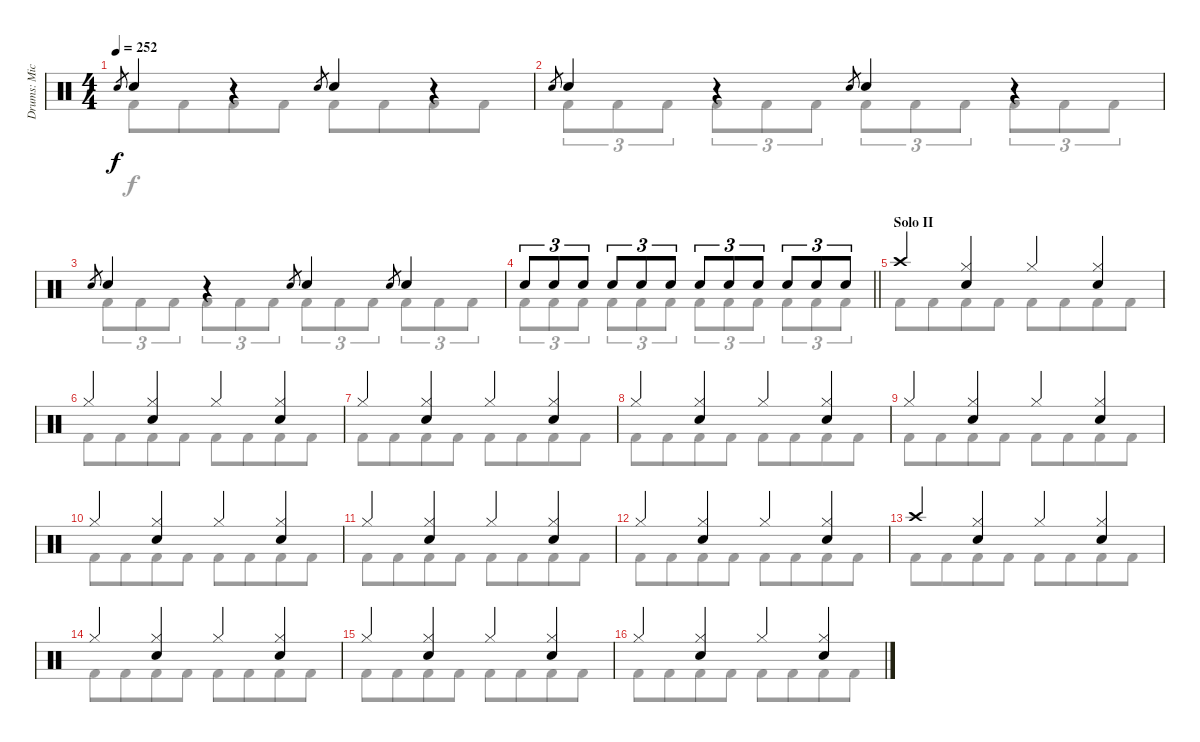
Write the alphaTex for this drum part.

\track ("Drums: Mick" "Drums: Mic") {instrument percussion}
\staff {score}
\articulation defaults
\voice
\ts (4 4)
\tempo 252
\clef neutral
\ks c "Electric Snare (hit)".8{gr dy f} "Snare (hit) 2".4
r.4 "Electric Snare (hit)".8{gr} "Snare (hit) 2".4 r.4 |
"Electric Snare (hit)".8{gr} "Snare (hit) 2".4 r.4 "Electric Snare (hit)".8{gr} "Snare (hit) 2".4 r.4 |
"Electric Snare (hit)".8{gr} "Snare (hit) 2".4 r.4 "Electric Snare (hit)".8{gr} "Snare (hit) 2".4 "Electric Snare (hit)".8{gr} "Snare (hit) 2".4 |
\barLineRight lightlight "Snare (hit) 2".8{tu (3 2)} "Snare (hit) 2".8{tu (3 2)} "Snare (hit) 2".8{tu (3 2)} "Snare (hit) 2".8{tu (3 2)} "Snare (hit) 2".8{tu (3 2)} "Snare (hit) 2".8{tu (3 2)} "Snare (hit) 2".8{tu (3 2)} "Snare (hit) 2".8{tu (3 2)} "Snare (hit) 2".8{tu (3 2)} "Snare (hit) 2".8{tu (3 2)} "Snare (hit) 2".8{tu (3 2)} "Snare (hit) 2".8{tu (3 2)}
|
\section ("" "Solo II")
"Crash high (hit)".4 ("Hi-Hat (closed)" "Snare (hit) 2").4 "Hi-Hat (closed)".4 ("Hi-Hat (closed)" "Snare (hit) 2").4 |
"Hi-Hat (closed)".4 ("Hi-Hat (closed)" "Snare (hit) 2").4 "Hi-Hat (closed)".4 ("Hi-Hat (closed)" "Snare (hit) 2").4 |
"Hi-Hat (closed)".4 ("Hi-Hat (closed)" "Snare (hit) 2").4 "Hi-Hat (closed)".4 ("Hi-Hat (closed)" "Snare (hit) 2").4 |
"Hi-Hat (closed)".4 ("Hi-Hat (closed)" "Snare (hit) 2").4 "Hi-Hat (closed)".4 ("Hi-Hat (closed)" "Snare (hit) 2").4 |
"Hi-Hat (closed)".4 ("Hi-Hat (closed)" "Snare (hit) 2").4 "Hi-Hat (closed)".4 ("Hi-Hat (closed)" "Snare (hit) 2").4 |
"Hi-Hat (closed)".4 ("Hi-Hat (closed)" "Snare (hit) 2").4 "Hi-Hat (closed)".4 ("Hi-Hat (closed)" "Snare (hit) 2").4 |
"Hi-Hat (closed)".4 ("Hi-Hat (closed)" "Snare (hit) 2").4 "Hi-Hat (closed)".4 ("Hi-Hat (closed)" "Snare (hit) 2").4 |
"Hi-Hat (closed)".4 ("Hi-Hat (closed)" "Snare (hit) 2").4 "Hi-Hat (closed)".4 ("Hi-Hat (closed)" "Snare (hit) 2").4 |
"Crash high (hit)".4 ("Hi-Hat (closed)" "Snare (hit) 2").4 "Hi-Hat (closed)".4 ("Hi-Hat (closed)" "Snare (hit) 2").4 |
"Hi-Hat (closed)".4 ("Hi-Hat (closed)" "Snare (hit) 2").4 "Hi-Hat (closed)".4 ("Hi-Hat (closed)" "Snare (hit) 2").4 |
"Hi-Hat (closed)".4 ("Hi-Hat (closed)" "Snare (hit) 2").4 "Hi-Hat (closed)".4 ("Hi-Hat (closed)" "Snare (hit) 2").4 |
"Hi-Hat (closed)".4 ("Hi-Hat (closed)" "Snare (hit) 2").4 "Hi-Hat (closed)".4 ("Hi-Hat (closed)" "Snare (hit) 2").4
\voice
\clef neutral
\ottava regular
\simile none
\ks c "Kick (hit) 2".8{dy f} "Kick (hit) 2".8{beam merge} "Kick (hit) 2".8 "Kick (hit) 2".8 "Kick (hit) 2".8 "Kick (hit) 2".8{beam merge} "Kick (hit) 2".8 "Kick (hit) 2".8
|
"Kick (hit) 2".8{tu (3 2)} "Kick (hit) 2".8{tu (3 2)} "Kick (hit) 2".8{tu (3 2)} "Kick (hit) 2".8{tu (3 2)} "Kick (hit) 2".8{tu (3 2)} "Kick (hit) 2".8{tu (3 2)} "Kick (hit) 2".8{tu (3 2)} "Kick (hit) 2".8{tu (3 2)} "Kick (hit) 2".8{tu (3 2)} "Kick (hit) 2".8{tu (3 2)} "Kick (hit) 2".8{tu (3 2)} "Kick (hit) 2".8{tu (3 2)} |
"Kick (hit) 2".8{tu (3 2)} "Kick (hit) 2".8{tu (3 2)} "Kick (hit) 2".8{tu (3 2)} "Kick (hit) 2".8{tu (3 2)} "Kick (hit) 2".8{tu (3 2)} "Kick (hit) 2".8{tu (3 2)} "Kick (hit) 2".8{tu (3 2)} "Kick (hit) 2".8{tu (3 2)} "Kick (hit) 2".8{tu (3 2)} "Kick (hit) 2".8{tu (3 2)} "Kick (hit) 2".8{tu (3 2)} "Kick (hit) 2".8{tu (3 2)} |
\barLineRight lightlight "Kick (hit) 2".8{tu (3 2)} "Kick (hit) 2".8{tu (3 2)} "Kick (hit) 2".8{tu (3 2)} "Kick (hit) 2".8{tu (3 2)} "Kick (hit) 2".8{tu (3 2)} "Kick (hit) 2".8{tu (3 2)} "Kick (hit) 2".8{tu (3 2)} "Kick (hit) 2".8{tu (3 2)} "Kick (hit) 2".8{tu (3 2)} "Kick (hit) 2".8{tu (3 2)} "Kick (hit) 2".8{tu (3 2)} "Kick (hit) 2".8{tu (3 2)}
|
"Kick (hit) 2".8 "Kick (hit) 2".8{beam merge} "Kick (hit) 2".8 "Kick (hit) 2".8 "Kick (hit) 2".8 "Kick (hit) 2".8{beam merge} "Kick (hit) 2".8 "Kick (hit) 2".8 |
"Kick (hit) 2".8 "Kick (hit) 2".8{beam merge} "Kick (hit) 2".8 "Kick (hit) 2".8 "Kick (hit) 2".8 "Kick (hit) 2".8{beam merge} "Kick (hit) 2".8 "Kick (hit) 2".8 |
"Kick (hit) 2".8 "Kick (hit) 2".8{beam merge} "Kick (hit) 2".8 "Kick (hit) 2".8 "Kick (hit) 2".8 "Kick (hit) 2".8{beam merge} "Kick (hit) 2".8 "Kick (hit) 2".8 |
"Kick (hit) 2".8 "Kick (hit) 2".8{beam merge} "Kick (hit) 2".8 "Kick (hit) 2".8 "Kick (hit) 2".8 "Kick (hit) 2".8{beam merge} "Kick (hit) 2".8 "Kick (hit) 2".8 |
"Kick (hit) 2".8 "Kick (hit) 2".8{beam merge} "Kick (hit) 2".8 "Kick (hit) 2".8 "Kick (hit) 2".8 "Kick (hit) 2".8{beam merge} "Kick (hit) 2".8 "Kick (hit) 2".8 |
"Kick (hit) 2".8 "Kick (hit) 2".8{beam merge} "Kick (hit) 2".8 "Kick (hit) 2".8 "Kick (hit) 2".8 "Kick (hit) 2".8{beam merge} "Kick (hit) 2".8 "Kick (hit) 2".8 |
"Kick (hit) 2".8 "Kick (hit) 2".8{beam merge} "Kick (hit) 2".8 "Kick (hit) 2".8 "Kick (hit) 2".8 "Kick (hit) 2".8{beam merge} "Kick (hit) 2".8 "Kick (hit) 2".8 |
"Kick (hit) 2".8 "Kick (hit) 2".8{beam merge} "Kick (hit) 2".8 "Kick (hit) 2".8 "Kick (hit) 2".8 "Kick (hit) 2".8{beam merge} "Kick (hit) 2".8 "Kick (hit) 2".8 |
"Kick (hit) 2".8 "Kick (hit) 2".8{beam merge} "Kick (hit) 2".8 "Kick (hit) 2".8 "Kick (hit) 2".8 "Kick (hit) 2".8{beam merge} "Kick (hit) 2".8 "Kick (hit) 2".8 |
"Kick (hit) 2".8 "Kick (hit) 2".8{beam merge} "Kick (hit) 2".8 "Kick (hit) 2".8 "Kick (hit) 2".8 "Kick (hit) 2".8{beam merge} "Kick (hit) 2".8 "Kick (hit) 2".8 |
"Kick (hit) 2".8 "Kick (hit) 2".8{beam merge} "Kick (hit) 2".8 "Kick (hit) 2".8 "Kick (hit) 2".8 "Kick (hit) 2".8{beam merge} "Kick (hit) 2".8 "Kick (hit) 2".8 |
"Kick (hit) 2".8 "Kick (hit) 2".8{beam merge} "Kick (hit) 2".8 "Kick (hit) 2".8 "Kick (hit) 2".8 "Kick (hit) 2".8{beam merge} "Kick (hit) 2".8 "Kick (hit) 2".8
